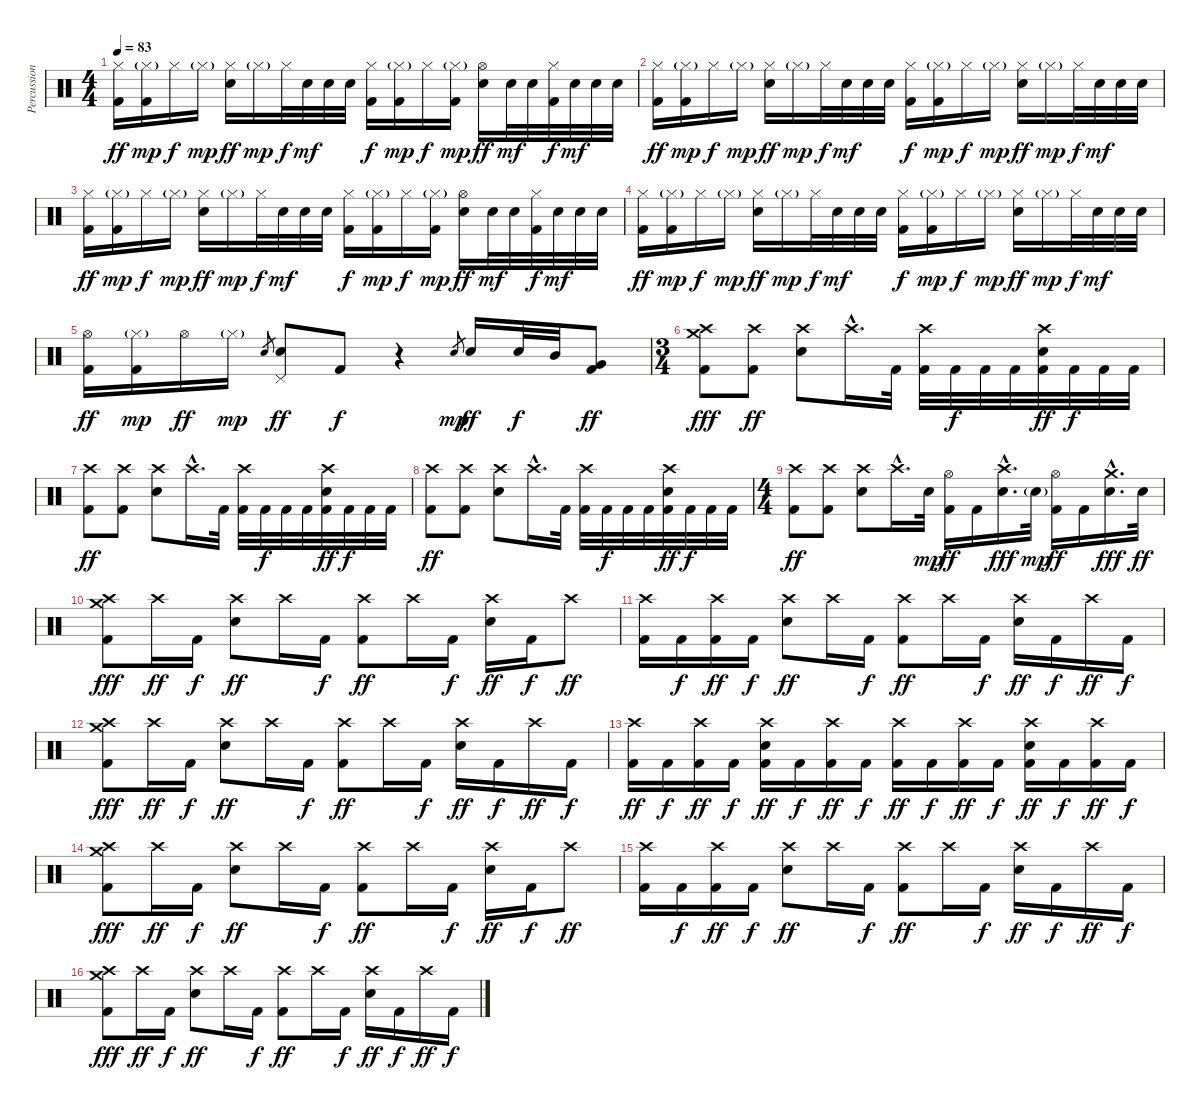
\track ("Percussions" "Percussion") {instrument percussion}
\staff {score}
\articulation defaults
\ts (4 4)
\tempo 83
\clef neutral
\ks c
("Hi-Hat (closed)" "Kick (hit) 2").16{dy ff} ("Hi-Hat (closed)"{g} "Kick (hit) 2").16{dy mp} "Hi-Hat (closed)".16{dy f} "Hi-Hat (closed)"{g}.16{dy mp} ("Hi-Hat (closed)" "Electric Snare (hit)").16{dy ff} "Hi-Hat (closed)"{g}.16{dy mp} "Hi-Hat (closed)".32{dy f} "Electric Snare (hit)".32{dy mf} "Electric Snare (hit)".32 "Electric Snare (hit)".32 ("Hi-Hat (closed)" "Kick (hit) 2").16{dy f} ("Hi-Hat (closed)"{g} "Kick (hit) 2").16{dy mp} "Hi-Hat (closed)".16{dy f} ("Hi-Hat (closed)"{g} "Kick (hit) 2").16{dy mp} ("Hi-Hat (open)" "Electric Snare (hit)").16{dy ff} "Electric Snare (hit)".32{dy mf} "Electric Snare (hit)".32 ("Hi-Hat (closed)" "Kick (hit) 2").32{dy f} "Electric Snare (hit)".32{dy mf} "Electric Snare (hit)".32 "Electric Snare (hit)".32 |
("Hi-Hat (closed)" "Kick (hit) 2").16{dy ff} ("Hi-Hat (closed)"{g} "Kick (hit) 2").16{dy mp} "Hi-Hat (closed)".16{dy f} "Hi-Hat (closed)"{g}.16{dy mp} ("Hi-Hat (closed)" "Electric Snare (hit)").16{dy ff} "Hi-Hat (closed)"{g}.16{dy mp} "Hi-Hat (closed)".32{dy f} "Electric Snare (hit)".32{dy mf} "Electric Snare (hit)".32 "Electric Snare (hit)".32 ("Hi-Hat (closed)" "Kick (hit) 2").16{dy f} ("Hi-Hat (closed)"{g} "Kick (hit) 2").16{dy mp} "Hi-Hat (closed)".16{dy f} "Hi-Hat (closed)"{g}.16{dy mp} ("Hi-Hat (closed)" "Electric Snare (hit)").16{dy ff} "Hi-Hat (closed)"{g}.16{dy mp} "Hi-Hat (closed)".32{dy f} "Electric Snare (hit)".32{dy mf} "Electric Snare (hit)".32 "Electric Snare (hit)".32 |
("Hi-Hat (closed)" "Kick (hit) 2").16{dy ff} ("Hi-Hat (closed)"{g} "Kick (hit) 2").16{dy mp} "Hi-Hat (closed)".16{dy f} "Hi-Hat (closed)"{g}.16{dy mp} ("Hi-Hat (closed)" "Electric Snare (hit)").16{dy ff} "Hi-Hat (closed)"{g}.16{dy mp} "Hi-Hat (closed)".32{dy f} "Electric Snare (hit)".32{dy mf} "Electric Snare (hit)".32 "Electric Snare (hit)".32 ("Hi-Hat (closed)" "Kick (hit) 2").16{dy f} ("Hi-Hat (closed)"{g} "Kick (hit) 2").16{dy mp} "Hi-Hat (closed)".16{dy f} ("Hi-Hat (closed)"{g} "Kick (hit) 2").16{dy mp} ("Hi-Hat (open)" "Electric Snare (hit)").16{dy ff} "Electric Snare (hit)".32{dy mf} "Electric Snare (hit)".32 ("Hi-Hat (closed)" "Kick (hit) 2").32{dy f} "Electric Snare (hit)".32{dy mf} "Electric Snare (hit)".32 "Electric Snare (hit)".32 |
("Hi-Hat (closed)" "Kick (hit) 2").16{dy ff} ("Hi-Hat (closed)"{g} "Kick (hit) 2").16{dy mp} "Hi-Hat (closed)".16{dy f} "Hi-Hat (closed)"{g}.16{dy mp} ("Hi-Hat (closed)" "Electric Snare (hit)").16{dy ff} "Hi-Hat (closed)"{g}.16{dy mp} "Hi-Hat (closed)".32{dy f} "Electric Snare (hit)".32{dy mf} "Electric Snare (hit)".32 "Electric Snare (hit)".32 ("Hi-Hat (closed)" "Kick (hit) 2").16{dy f} ("Hi-Hat (closed)"{g} "Kick (hit) 2").16{dy mp} "Hi-Hat (closed)".16{dy f} "Hi-Hat (closed)"{g}.16{dy mp} ("Hi-Hat (closed)" "Electric Snare (hit)").16{dy ff} "Hi-Hat (closed)"{g}.16{dy mp} "Hi-Hat (closed)".32{dy f} "Electric Snare (hit)".32{dy mf} "Electric Snare (hit)".32 "Electric Snare (hit)".32 |
("Hi-Hat (open)" "Kick (hit) 2").16{dy ff} ("Hi-Hat (closed)"{g} "Kick (hit) 2").16{dy mp} "Hi-Hat (open)".16{dy ff} "Hi-Hat (closed)"{g}.16{dy mp} "Electric Snare (hit)".8{gr} ("Electric Snare (hit)" "Pedal Hi-Hat (hit)").8{dy ff} "Kick (hit) 2".8{dy f} r.4 "Electric Snare (hit)".8{gr dy mp} "Electric Snare (hit)".16{dy ff} "Electric Snare (hit)".32{dy f} "Mid Tom (hit)".32 ("Very Low Tom (hit)" "Kick (hit) 2").8{dy ff} |
\ts (3 4)
("Crash high (hit)" "Crash medium (hit)" "Kick (hit) 2").8{dy fff} ("Crash high (hit)" "Kick (hit) 2").8{dy ff} ("Crash high (hit)" "Electric Snare (hit)").8 "Crash high (hit)"{hac}.16{d} "Kick (hit) 2".32 ("Crash high (hit)" "Kick (hit) 2").32 "Kick (hit) 2".32{dy f} "Kick (hit) 2".32 "Kick (hit) 2".32 ("Crash high (hit)" "Electric Snare (hit)" "Kick (hit) 2").32{dy ff} "Kick (hit) 2".32{dy f} "Kick (hit) 2".32 "Kick (hit) 2".32 |
("Crash high (hit)" "Kick (hit) 2").8{dy ff} ("Crash high (hit)" "Kick (hit) 2").8 ("Crash high (hit)" "Electric Snare (hit)").8 "Crash high (hit)"{hac}.16{d} "Kick (hit) 2".32 ("Crash high (hit)" "Kick (hit) 2").32 "Kick (hit) 2".32{dy f} "Kick (hit) 2".32 "Kick (hit) 2".32 ("Crash high (hit)" "Electric Snare (hit)" "Kick (hit) 2").32{dy ff} "Kick (hit) 2".32{dy f} "Kick (hit) 2".32 "Kick (hit) 2".32 |
("Crash high (hit)" "Kick (hit) 2").8{dy ff} ("Crash high (hit)" "Kick (hit) 2").8 ("Crash high (hit)" "Electric Snare (hit)").8 "Crash high (hit)"{hac}.16{d} "Kick (hit) 2".32 ("Crash high (hit)" "Kick (hit) 2").32 "Kick (hit) 2".32{dy f} "Kick (hit) 2".32 "Kick (hit) 2".32 ("Crash high (hit)" "Electric Snare (hit)" "Kick (hit) 2").32{dy ff} "Kick (hit) 2".32{dy f} "Kick (hit) 2".32 "Kick (hit) 2".32 |
\ts (4 4)
("Crash high (hit)" "Kick (hit) 2").8{dy ff} ("Crash high (hit)" "Kick (hit) 2").8 ("Crash high (hit)" "Electric Snare (hit)").8 "Crash high (hit)"{hac}.16{d} "Electric Snare (hit)".32{dy mp} ("Hi-Hat (open)" "Kick (hit) 2").16{dy ff} "Kick (hit) 2".16 ("Crash high (hit)"{hac} "Electric Snare (hit)"{hac}).16{d dy fff} "Electric Snare (hit)"{g}.32{dy mp} ("Hi-Hat (open)" "Kick (hit) 2").16{dy ff} "Kick (hit) 2".16 ("Crash medium (hit)"{hac} "Electric Snare (hit)"{hac}).16{d dy fff} "Electric Snare (hit)".32{dy ff} |
("Crash medium (hit)" "Crash high (hit)" "Kick (hit) 2").8{dy fff} "Crash high (hit)".16{dy ff} "Kick (hit) 2".16{dy f} ("Crash high (hit)" "Electric Snare (hit)").8{dy ff} "Crash high (hit)".16 "Kick (hit) 2".16{dy f} ("Crash high (hit)" "Kick (hit) 2").8{dy ff} "Crash high (hit)".16 "Kick (hit) 2".16{dy f} ("Crash high (hit)" "Electric Snare (hit)").16{dy ff} "Kick (hit) 2".16{dy f} "Crash high (hit)".8{dy ff} |
("Crash high (hit)" "Kick (hit) 2").16 "Kick (hit) 2".16{dy f} ("Crash high (hit)" "Kick (hit) 2").16{dy ff} "Kick (hit) 2".16{dy f} ("Crash high (hit)" "Electric Snare (hit)").8{dy ff} "Crash high (hit)".16 "Kick (hit) 2".16{dy f} ("Crash high (hit)" "Kick (hit) 2").8{dy ff} "Crash high (hit)".16 "Kick (hit) 2".16{dy f} ("Crash high (hit)" "Electric Snare (hit)").16{dy ff} "Kick (hit) 2".16{dy f} "Crash high (hit)".16{dy ff} "Kick (hit) 2".16{dy f} |
("Crash medium (hit)" "Crash high (hit)" "Kick (hit) 2").8{dy fff} "Crash high (hit)".16{dy ff} "Kick (hit) 2".16{dy f} ("Crash high (hit)" "Electric Snare (hit)").8{dy ff} "Crash high (hit)".16 "Kick (hit) 2".16{dy f} ("Crash high (hit)" "Kick (hit) 2").8{dy ff} "Crash high (hit)".16 "Kick (hit) 2".16{dy f} ("Crash high (hit)" "Electric Snare (hit)").16{dy ff} "Kick (hit) 2".16{dy f} "Crash high (hit)".16{dy ff} "Kick (hit) 2".16{dy f} |
("Crash high (hit)" "Kick (hit) 2").16{dy ff} "Kick (hit) 2".16{dy f} ("Crash high (hit)" "Kick (hit) 2").16{dy ff} "Kick (hit) 2".16{dy f} ("Crash high (hit)" "Electric Snare (hit)" "Kick (hit) 2").16{dy ff} "Kick (hit) 2".16{dy f} ("Crash high (hit)" "Kick (hit) 2").16{dy ff} "Kick (hit) 2".16{dy f} ("Crash high (hit)" "Kick (hit) 2").16{dy ff} "Kick (hit) 2".16{dy f} ("Crash high (hit)" "Kick (hit) 2").16{dy ff} "Kick (hit) 2".16{dy f} ("Crash high (hit)" "Electric Snare (hit)" "Kick (hit) 2").16{dy ff} "Kick (hit) 2".16{dy f} ("Crash high (hit)" "Kick (hit) 2").16{dy ff} "Kick (hit) 2".16{dy f} |
("Crash medium (hit)" "Crash high (hit)" "Kick (hit) 2").8{dy fff} "Crash high (hit)".16{dy ff} "Kick (hit) 2".16{dy f} ("Crash high (hit)" "Electric Snare (hit)").8{dy ff} "Crash high (hit)".16 "Kick (hit) 2".16{dy f} ("Crash high (hit)" "Kick (hit) 2").8{dy ff} "Crash high (hit)".16 "Kick (hit) 2".16{dy f} ("Crash high (hit)" "Electric Snare (hit)").16{dy ff} "Kick (hit) 2".16{dy f} "Crash high (hit)".8{dy ff} |
("Crash high (hit)" "Kick (hit) 2").16 "Kick (hit) 2".16{dy f} ("Crash high (hit)" "Kick (hit) 2").16{dy ff} "Kick (hit) 2".16{dy f} ("Crash high (hit)" "Electric Snare (hit)").8{dy ff} "Crash high (hit)".16 "Kick (hit) 2".16{dy f} ("Crash high (hit)" "Kick (hit) 2").8{dy ff} "Crash high (hit)".16 "Kick (hit) 2".16{dy f} ("Crash high (hit)" "Electric Snare (hit)").16{dy ff} "Kick (hit) 2".16{dy f} "Crash high (hit)".16{dy ff} "Kick (hit) 2".16{dy f} |
("Crash medium (hit)" "Crash high (hit)" "Kick (hit) 2").8{dy fff} "Crash high (hit)".16{dy ff} "Kick (hit) 2".16{dy f} ("Crash high (hit)" "Electric Snare (hit)").8{dy ff} "Crash high (hit)".16 "Kick (hit) 2".16{dy f} ("Crash high (hit)" "Kick (hit) 2").8{dy ff} "Crash high (hit)".16 "Kick (hit) 2".16{dy f} ("Crash high (hit)" "Electric Snare (hit)").16{dy ff} "Kick (hit) 2".16{dy f} "Crash high (hit)".16{dy ff} "Kick (hit) 2".16{dy f}
